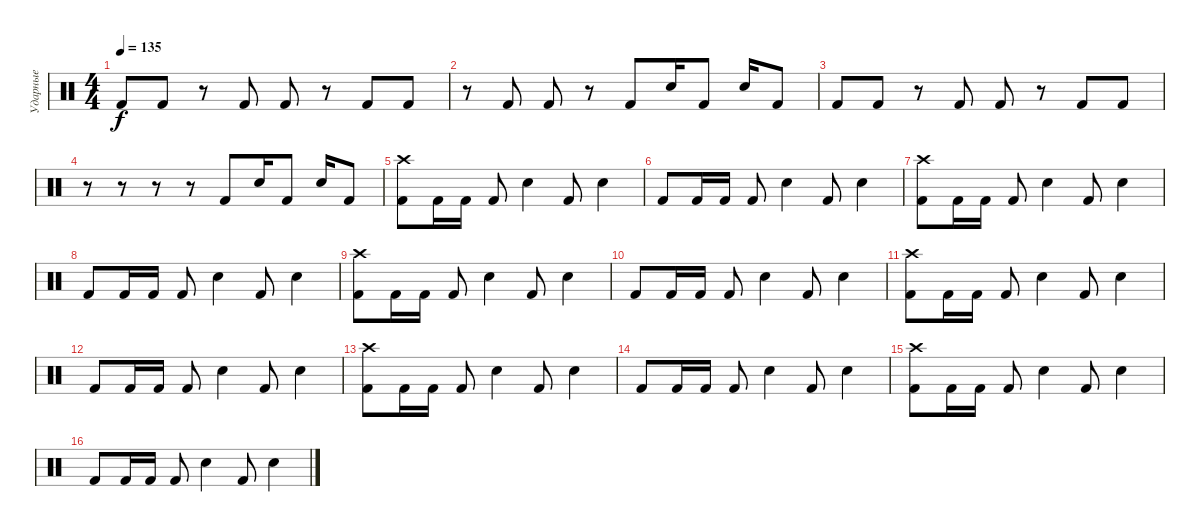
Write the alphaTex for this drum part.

\track ("Ударные" "Ударные") {instrument percussion}
\staff {score}
\articulation defaults
\ts (4 4)
\tempo 135
\clef neutral
\ks c "Kick (hit) 2".8{dy f} "Kick (hit) 2".8
r.8 "Kick (hit) 2".8 "Kick (hit) 2".8 r.8 "Kick (hit) 2".8 "Kick (hit) 2".8 |
r.8 "Kick (hit) 2".8 "Kick (hit) 2".8 r.8 "Kick (hit) 2".8 "Snare (hit) 2".16 "Kick (hit) 2".8 "Electric Snare (hit)".16 "Kick (hit) 2".8 |
"Kick (hit) 2".8 "Kick (hit) 2".8 r.8 "Kick (hit) 2".8 "Kick (hit) 2".8 r.8 "Kick (hit) 2".8 "Kick (hit) 2".8 |
r.8 r.8 r.8 r.8 "Kick (hit) 2".8 "Snare (hit) 2".16 "Kick (hit) 2".8 "Electric Snare (hit)".16 "Kick (hit) 2".8 |
("Crash high (hit)" "Kick (hit) 2").8 "Kick (hit) 2".16 "Kick (hit) 2".16 "Kick (hit) 2".8 "Electric Snare (hit)".4 "Kick (hit) 2".8 "Electric Snare (hit)".4 |
"Kick (hit) 2".8 "Kick (hit) 2".16 "Kick (hit) 2".16 "Kick (hit) 2".8 "Electric Snare (hit)".4 "Kick (hit) 2".8 "Electric Snare (hit)".4 |
("Crash high (hit)" "Kick (hit) 2").8 "Kick (hit) 2".16 "Kick (hit) 2".16 "Kick (hit) 2".8 "Electric Snare (hit)".4 "Kick (hit) 2".8 "Electric Snare (hit)".4 |
"Kick (hit) 2".8 "Kick (hit) 2".16 "Kick (hit) 2".16 "Kick (hit) 2".8 "Electric Snare (hit)".4 "Kick (hit) 2".8 "Electric Snare (hit)".4 |
("Crash high (hit)" "Kick (hit) 2").8 "Kick (hit) 2".16 "Kick (hit) 2".16 "Kick (hit) 2".8 "Electric Snare (hit)".4 "Kick (hit) 2".8 "Electric Snare (hit)".4 |
"Kick (hit) 2".8 "Kick (hit) 2".16 "Kick (hit) 2".16 "Kick (hit) 2".8 "Electric Snare (hit)".4 "Kick (hit) 2".8 "Electric Snare (hit)".4 |
("Crash high (hit)" "Kick (hit) 2").8 "Kick (hit) 2".16 "Kick (hit) 2".16 "Kick (hit) 2".8 "Electric Snare (hit)".4 "Kick (hit) 2".8 "Electric Snare (hit)".4 |
"Kick (hit) 2".8 "Kick (hit) 2".16 "Kick (hit) 2".16 "Kick (hit) 2".8 "Electric Snare (hit)".4 "Kick (hit) 2".8 "Electric Snare (hit)".4 |
("Crash high (hit)" "Kick (hit) 2").8 "Kick (hit) 2".16 "Kick (hit) 2".16 "Kick (hit) 2".8 "Electric Snare (hit)".4 "Kick (hit) 2".8 "Electric Snare (hit)".4 |
"Kick (hit) 2".8 "Kick (hit) 2".16 "Kick (hit) 2".16 "Kick (hit) 2".8 "Electric Snare (hit)".4 "Kick (hit) 2".8 "Electric Snare (hit)".4 |
("Crash high (hit)" "Kick (hit) 2").8 "Kick (hit) 2".16 "Kick (hit) 2".16 "Kick (hit) 2".8 "Electric Snare (hit)".4 "Kick (hit) 2".8 "Electric Snare (hit)".4 |
"Kick (hit) 2".8 "Kick (hit) 2".16 "Kick (hit) 2".16 "Kick (hit) 2".8 "Electric Snare (hit)".4 "Kick (hit) 2".8 "Electric Snare (hit)".4
